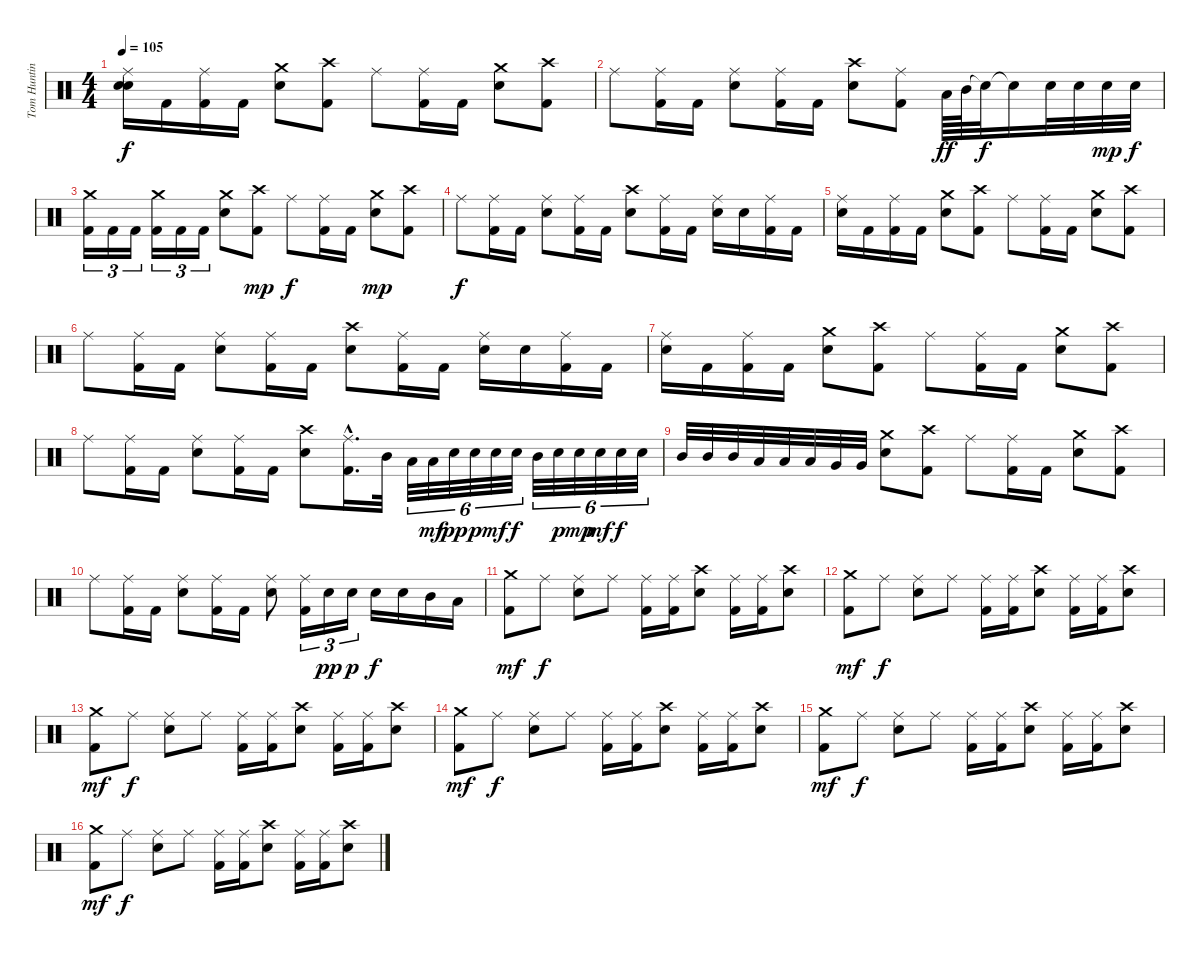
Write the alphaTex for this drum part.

\track ("Tom Hunting" "Tom Huntin") {instrument percussion}
\staff {score}
\articulation defaults
\ts (4 4)
\tempo 105
\clef neutral
\ks c
("Ride (middle)" "Snare (hit) 2" "Snare (hit)").16{dy f} "Kick (hit) 2".16 ("Kick (hit) 2" "Ride (middle)").16 "Kick (hit) 2".16 ("Crash medium (hit)" "Snare (hit) 2").8 ("Kick (hit) 2" "Crash high (hit)").8 "Ride (middle)".8 ("Kick (hit) 2" "Ride (middle)").16 "Kick (hit) 2".16 ("Crash medium (hit)" "Snare (hit) 2").8 ("Kick (hit) 2" "Crash high (hit)").8 |
"Ride (middle)".8 ("Kick (hit) 2" "Ride (middle)").16 "Kick (hit) 2".16 ("Ride (middle)" "Snare (hit) 2").8 ("Kick (hit) 2" "Ride (middle)").16 "Kick (hit) 2".16 ("Snare (hit) 2" "Crash high (hit)").8 ("Kick (hit) 2" "Ride (middle)").8 "Low Tom (hit)".64{dy ff} "Mid Tom (hit)".64 "Snare (hit)"{t}.32{dy f} "Snare (hit)"{t}.16 "Snare (hit) 2".32 "Snare (hit) 2".32 "Snare (hit) 2".32{dy mp} "Snare (hit) 2".32{dy f} |
("Kick (hit) 2" "Crash medium (hit)").16{tu (3 2)} "Kick (hit) 2".16{tu (3 2)} "Kick (hit) 2".16{tu (3 2)} ("Kick (hit) 2" "Crash medium (hit)").16{tu (3 2)} "Kick (hit) 2".16{tu (3 2)} "Kick (hit) 2".16{tu (3 2)} ("Crash medium (hit)" "Snare (hit) 2").8 ("Kick (hit) 2" "Crash high (hit)").8{dy mp} "Ride (middle)".8{dy f} ("Kick (hit) 2" "Ride (middle)").16 "Kick (hit) 2".16 ("Crash medium (hit)" "Snare (hit) 2").8{dy mp} ("Kick (hit) 2" "Crash high (hit)").8 |
"Ride (middle)".8{dy f} ("Kick (hit) 2" "Ride (middle)").16 "Kick (hit) 2".16 ("Ride (middle)" "Snare (hit) 2").8 ("Kick (hit) 2" "Ride (middle)").16 "Kick (hit) 2".16 ("Crash high (hit)" "Snare (hit) 2").8 ("Kick (hit) 2" "Ride (middle)").16 "Kick (hit) 2".16 ("Ride (middle)" "Snare (hit) 2").16 "Snare (hit) 2".16 ("Kick (hit) 2" "Ride (middle)").16 "Kick (hit) 2".16 |
("Ride (middle)" "Snare (hit) 2").16 "Kick (hit) 2".16 ("Kick (hit) 2" "Ride (middle)").16 "Kick (hit) 2".16 ("Crash medium (hit)" "Snare (hit) 2").8 ("Kick (hit) 2" "Crash high (hit)").8 "Ride (middle)".8 ("Kick (hit) 2" "Ride (middle)").16 "Kick (hit) 2".16 ("Crash medium (hit)" "Snare (hit) 2").8 ("Kick (hit) 2" "Crash high (hit)").8 |
"Ride (middle)".8 ("Kick (hit) 2" "Ride (middle)").16 "Kick (hit) 2".16 ("Ride (middle)" "Snare (hit) 2").8 ("Kick (hit) 2" "Ride (middle)").16 "Kick (hit) 2".16 ("Crash high (hit)" "Snare (hit) 2").8 ("Kick (hit) 2" "Ride (middle)").16 "Kick (hit) 2".16 ("Ride (middle)" "Snare (hit) 2").16 "Snare (hit) 2".16 ("Kick (hit) 2" "Ride (middle)").16 "Kick (hit) 2".16 |
("Ride (middle)" "Snare (hit) 2").16 "Kick (hit) 2".16 ("Kick (hit) 2" "Ride (middle)").16 "Kick (hit) 2".16 ("Crash medium (hit)" "Snare (hit) 2").8 ("Kick (hit) 2" "Crash high (hit)").8 "Ride (middle)".8 ("Kick (hit) 2" "Ride (middle)").16 "Kick (hit) 2".16 ("Crash medium (hit)" "Snare (hit) 2").8 ("Kick (hit) 2" "Crash high (hit)").8 |
"Ride (middle)".8 ("Kick (hit) 2" "Ride (middle)").16 "Kick (hit) 2".16 ("Ride (middle)" "Snare (hit) 2").8 ("Kick (hit) 2" "Ride (middle)").16 "Kick (hit) 2".16 ("Crash high (hit)" "Snare (hit) 2").8 ("Kick (hit) 2"{hac} "Ride (middle)"{hac}).16{d} "Mid Tom (hit)".32 "Low Tom (hit)".32{tu (6 4)} "Low Floor Tom (hit)".32{tu (6 4) dy mf} "Snare (hit) 2".32{tu (6 4) dy pp} "Snare (hit) 2".32{tu (6 4) dy p} "Snare (hit) 2".32{tu (6 4) dy mf} "Snare (hit) 2".32{tu (6 4) dy f} "Mid Tom (hit)".32{tu (6 4)} "Snare (hit) 2".32{tu (6 4) dy p} "Snare (hit) 2".32{tu (6 4) dy mp} "Snare (hit) 2".32{tu (6 4) dy mf} "Snare (hit) 2".32{tu (6 4) dy f} "Snare (hit) 2".32{tu (6 4)} |
"Mid Tom (hit)".32 "Mid Tom (hit)".32 "Mid Tom (hit)".32 "Low Tom (hit)".32 "Low Tom (hit)".32 "Low Tom (hit)".32 "Very Low Tom (hit)".32 "Very Low Tom (hit)".32 ("Crash medium (hit)" "Snare (hit) 2").8 ("Kick (hit) 2" "Crash high (hit)").8 "Ride (middle)".8 ("Kick (hit) 2" "Ride (middle)").16 "Kick (hit) 2".16 ("Crash medium (hit)" "Snare (hit) 2").8 ("Kick (hit) 2" "Crash high (hit)").8 |
"Ride (middle)".8 ("Kick (hit) 2" "Ride (middle)").16 "Kick (hit) 2".16 ("Ride (middle)" "Snare (hit) 2").8 ("Kick (hit) 2" "Ride (middle)").16 "Kick (hit) 2".16 ("Ride (middle)" "Snare (hit) 2").8 ("Kick (hit) 2" "Ride (middle)").16{tu (3 2)} "Snare (hit) 2".16{tu (3 2) dy pp} "Snare (hit) 2".16{tu (3 2) dy p} "Snare (hit) 2".16{dy f} "Snare (hit) 2".16 "Mid Tom (hit)".16 "Low Tom (hit)".16 |
("Kick (hit) 2" "Crash medium (hit)").8{dy mf} "Ride (middle)".8{dy f} ("Ride (middle)" "Snare (hit) 2").8 "Ride (middle)".8 ("Kick (hit) 2" "Ride (middle)").16 ("Kick (hit) 2" "Ride (middle)").16 ("Crash high (hit)" "Snare (hit) 2").8 ("Kick (hit) 2" "Ride (middle)").16 ("Kick (hit) 2" "Ride (middle)").16 ("Crash high (hit)" "Snare (hit) 2").8 |
("Kick (hit) 2" "Crash medium (hit)").8{dy mf} "Ride (middle)".8{dy f} ("Ride (middle)" "Snare (hit) 2").8 "Ride (middle)".8 ("Kick (hit) 2" "Ride (middle)").16 ("Kick (hit) 2" "Ride (middle)").16 ("Crash high (hit)" "Snare (hit) 2").8 ("Kick (hit) 2" "Ride (middle)").16 ("Kick (hit) 2" "Ride (middle)").16 ("Crash high (hit)" "Snare (hit) 2").8 |
("Kick (hit) 2" "Crash medium (hit)").8{dy mf} "Ride (middle)".8{dy f} ("Ride (middle)" "Snare (hit) 2").8 "Ride (middle)".8 ("Kick (hit) 2" "Ride (middle)").16 ("Kick (hit) 2" "Ride (middle)").16 ("Crash high (hit)" "Snare (hit) 2").8 ("Kick (hit) 2" "Ride (middle)").16 ("Kick (hit) 2" "Ride (middle)").16 ("Crash high (hit)" "Snare (hit) 2").8 |
("Kick (hit) 2" "Crash medium (hit)").8{dy mf} "Ride (middle)".8{dy f} ("Ride (middle)" "Snare (hit) 2").8 "Ride (middle)".8 ("Kick (hit) 2" "Ride (middle)").16 ("Kick (hit) 2" "Ride (middle)").16 ("Crash high (hit)" "Snare (hit) 2").8 ("Kick (hit) 2" "Ride (middle)").16 ("Kick (hit) 2" "Ride (middle)").16 ("Crash high (hit)" "Snare (hit) 2").8 |
("Kick (hit) 2" "Crash medium (hit)").8{dy mf} "Ride (middle)".8{dy f} ("Ride (middle)" "Snare (hit) 2").8 "Ride (middle)".8 ("Kick (hit) 2" "Ride (middle)").16 ("Kick (hit) 2" "Ride (middle)").16 ("Crash high (hit)" "Snare (hit) 2").8 ("Kick (hit) 2" "Ride (middle)").16 ("Kick (hit) 2" "Ride (middle)").16 ("Crash high (hit)" "Snare (hit) 2").8 |
("Kick (hit) 2" "Crash medium (hit)").8{dy mf} "Ride (middle)".8{dy f} ("Ride (middle)" "Snare (hit) 2").8 "Ride (middle)".8 ("Kick (hit) 2" "Ride (middle)").16 ("Kick (hit) 2" "Ride (middle)").16 ("Crash high (hit)" "Snare (hit) 2").8 ("Kick (hit) 2" "Ride (middle)").16 ("Kick (hit) 2" "Ride (middle)").16 ("Crash high (hit)" "Snare (hit) 2").8
